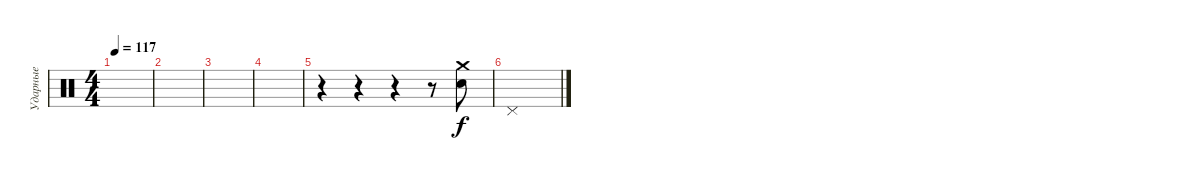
\track ("Ударные" "Ударные") {instrument percussion}
\staff {score}
\articulation defaults
\ts (4 4)
\tempo 117
\clef neutral
\ks c
|
|
|
|
r.4 r.4 r.4 r.8 ("Crash medium (hit)" "Electric Snare (hit)").8 |
"Pedal Hi-Hat (hit)".1
